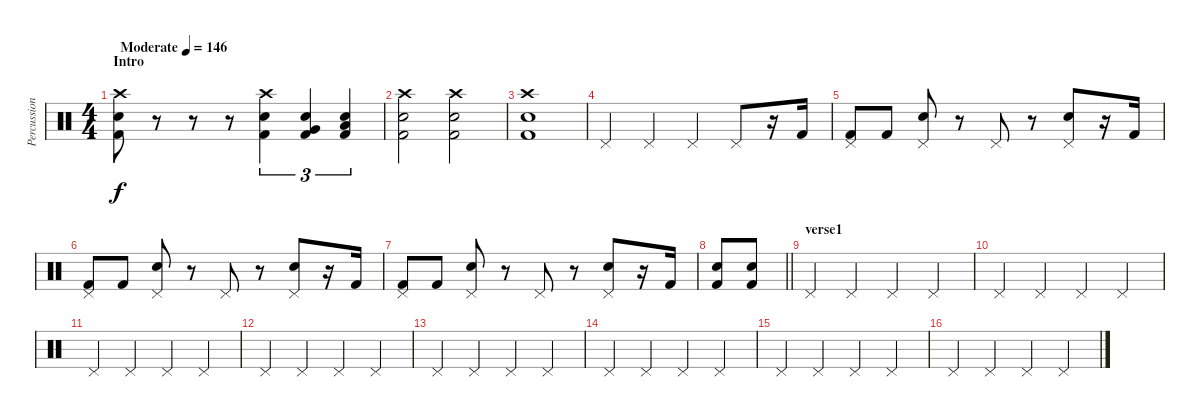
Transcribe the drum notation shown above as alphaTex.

\track ("Percussion" "Percussion") {instrument percussion}
\staff {score}
\articulation defaults
\ts (4 4)
\section ("" "Intro")
\tempo (146 "Moderate")
\clef neutral
\ks c
("Crash high (hit)" "Kick (hit) 2" "Snare (hit) 2").8{dy f} r.8 r.8 r.8 ("Kick (hit) 2" "Snare (hit) 2" "Crash high (hit)").4{tu (3 2)} ("Kick (hit) 2" "Very Low Tom (hit)" "Snare (hit) 2").4{tu (3 2)} ("Kick (hit) 2" "Low Floor Tom (hit)" "Snare (hit) 2").4{tu (3 2)} |
("Crash high (hit)" "Kick (hit) 2" "Snare (hit) 2").2 ("Crash high (hit)" "Kick (hit) 2" "Snare (hit) 2").2 |
("Crash high (hit)" "Kick (hit) 2" "Snare (hit) 2").1 |
"Pedal Hi-Hat (hit)".4 "Pedal Hi-Hat (hit)".4 "Pedal Hi-Hat (hit)".4 "Pedal Hi-Hat (hit)".8 r.16 "Kick (hit) 2".16 |
("Pedal Hi-Hat (hit)" "Kick (hit) 2").8 "Kick (hit) 2".8 ("Pedal Hi-Hat (hit)" "Snare (hit) 2").8 r.8 "Pedal Hi-Hat (hit)".8 r.8 ("Pedal Hi-Hat (hit)" "Snare (hit) 2").8 r.16 "Kick (hit) 2".16 |
("Pedal Hi-Hat (hit)" "Kick (hit) 2").8 "Kick (hit) 2".8 ("Pedal Hi-Hat (hit)" "Snare (hit) 2").8 r.8 "Pedal Hi-Hat (hit)".8 r.8 ("Pedal Hi-Hat (hit)" "Snare (hit) 2").8 r.16 "Kick (hit) 2".16 |
("Pedal Hi-Hat (hit)" "Kick (hit) 2").8 "Kick (hit) 2".8 ("Pedal Hi-Hat (hit)" "Snare (hit) 2").8 r.8 "Pedal Hi-Hat (hit)".8 r.8 ("Pedal Hi-Hat (hit)" "Snare (hit) 2").8 r.16 "Kick (hit) 2".16 |
\barLineRight lightlight
("Snare (hit) 2" "Kick (hit) 2").8 ("Snare (hit) 2" "Kick (hit) 2").8 |
\section ("" "verse1")
"Pedal Hi-Hat (hit)".4 "Pedal Hi-Hat (hit)".4 "Pedal Hi-Hat (hit)".4 "Pedal Hi-Hat (hit)".4 |
"Pedal Hi-Hat (hit)".4 "Pedal Hi-Hat (hit)".4 "Pedal Hi-Hat (hit)".4 "Pedal Hi-Hat (hit)".4 |
"Pedal Hi-Hat (hit)".4 "Pedal Hi-Hat (hit)".4 "Pedal Hi-Hat (hit)".4 "Pedal Hi-Hat (hit)".4 |
"Pedal Hi-Hat (hit)".4 "Pedal Hi-Hat (hit)".4 "Pedal Hi-Hat (hit)".4 "Pedal Hi-Hat (hit)".4 |
"Pedal Hi-Hat (hit)".4 "Pedal Hi-Hat (hit)".4 "Pedal Hi-Hat (hit)".4 "Pedal Hi-Hat (hit)".4 |
"Pedal Hi-Hat (hit)".4 "Pedal Hi-Hat (hit)".4 "Pedal Hi-Hat (hit)".4 "Pedal Hi-Hat (hit)".4 |
"Pedal Hi-Hat (hit)".4 "Pedal Hi-Hat (hit)".4 "Pedal Hi-Hat (hit)".4 "Pedal Hi-Hat (hit)".4 |
"Pedal Hi-Hat (hit)".4 "Pedal Hi-Hat (hit)".4 "Pedal Hi-Hat (hit)".4 "Pedal Hi-Hat (hit)".4
